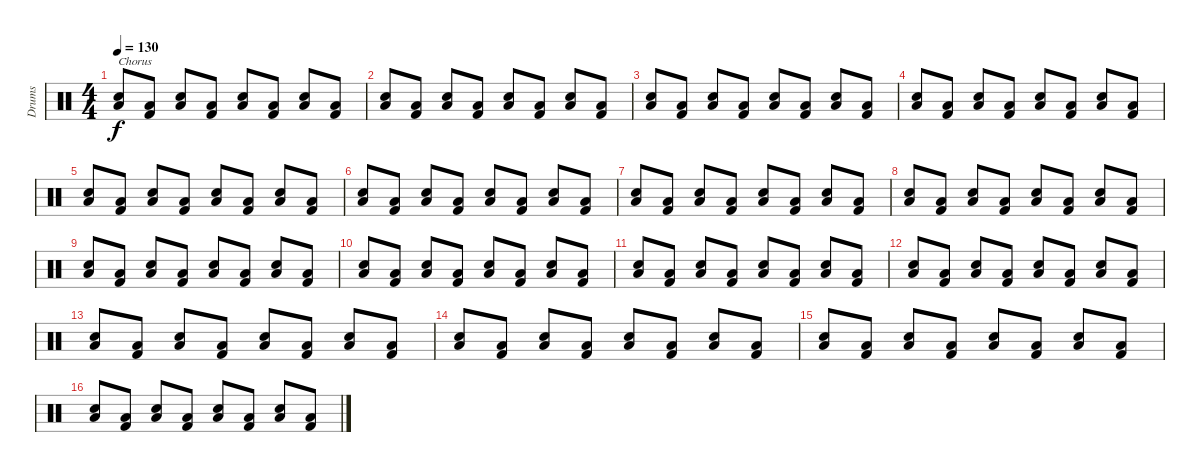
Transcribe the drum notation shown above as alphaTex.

\track ("Drums" "Drums") {instrument percussion}
\staff {score}
\articulation defaults
\ts (4 4)
\tempo 130
\clef neutral
\ks c
("Snare (hit) 2" "Low Floor Tom (hit)").8{txt "Chorus" dy f} ("Low Floor Tom (hit)" "Kick (hit) 2").8 ("Snare (hit) 2" "Low Floor Tom (hit)").8 ("Kick (hit) 2" "Low Floor Tom (hit)").8 ("Snare (hit) 2" "Low Floor Tom (hit)").8 ("Kick (hit) 2" "Low Floor Tom (hit)").8 ("Snare (hit) 2" "Low Floor Tom (hit)").8 ("Kick (hit) 2" "Low Floor Tom (hit)").8 |
("Snare (hit) 2" "Low Floor Tom (hit)").8 ("Low Floor Tom (hit)" "Kick (hit) 2").8 ("Snare (hit) 2" "Low Floor Tom (hit)").8 ("Kick (hit) 2" "Low Floor Tom (hit)").8 ("Snare (hit) 2" "Low Floor Tom (hit)").8 ("Kick (hit) 2" "Low Floor Tom (hit)").8 ("Snare (hit) 2" "Low Floor Tom (hit)").8 ("Kick (hit) 2" "Low Floor Tom (hit)").8 |
("Snare (hit) 2" "Low Floor Tom (hit)").8 ("Low Floor Tom (hit)" "Kick (hit) 2").8 ("Snare (hit) 2" "Low Floor Tom (hit)").8 ("Kick (hit) 2" "Low Floor Tom (hit)").8 ("Snare (hit) 2" "Low Floor Tom (hit)").8 ("Kick (hit) 2" "Low Floor Tom (hit)").8 ("Snare (hit) 2" "Low Floor Tom (hit)").8 ("Kick (hit) 2" "Low Floor Tom (hit)").8 |
("Snare (hit) 2" "Low Floor Tom (hit)").8 ("Low Floor Tom (hit)" "Kick (hit) 2").8 ("Snare (hit) 2" "Low Floor Tom (hit)").8 ("Kick (hit) 2" "Low Floor Tom (hit)").8 ("Snare (hit) 2" "Low Floor Tom (hit)").8 ("Kick (hit) 2" "Low Floor Tom (hit)").8 ("Snare (hit) 2" "Low Floor Tom (hit)").8 ("Kick (hit) 2" "Low Floor Tom (hit)").8 |
("Snare (hit) 2" "Low Floor Tom (hit)").8 ("Low Floor Tom (hit)" "Kick (hit) 2").8 ("Snare (hit) 2" "Low Floor Tom (hit)").8 ("Kick (hit) 2" "Low Floor Tom (hit)").8 ("Snare (hit) 2" "Low Floor Tom (hit)").8 ("Kick (hit) 2" "Low Floor Tom (hit)").8 ("Snare (hit) 2" "Low Floor Tom (hit)").8 ("Kick (hit) 2" "Low Floor Tom (hit)").8 |
("Snare (hit) 2" "Low Floor Tom (hit)").8 ("Low Floor Tom (hit)" "Kick (hit) 2").8 ("Snare (hit) 2" "Low Floor Tom (hit)").8 ("Kick (hit) 2" "Low Floor Tom (hit)").8 ("Snare (hit) 2" "Low Floor Tom (hit)").8 ("Kick (hit) 2" "Low Floor Tom (hit)").8 ("Snare (hit) 2" "Low Floor Tom (hit)").8 ("Kick (hit) 2" "Low Floor Tom (hit)").8 |
("Snare (hit) 2" "Low Floor Tom (hit)").8 ("Low Floor Tom (hit)" "Kick (hit) 2").8 ("Snare (hit) 2" "Low Floor Tom (hit)").8 ("Kick (hit) 2" "Low Floor Tom (hit)").8 ("Snare (hit) 2" "Low Floor Tom (hit)").8 ("Kick (hit) 2" "Low Floor Tom (hit)").8 ("Snare (hit) 2" "Low Floor Tom (hit)").8 ("Kick (hit) 2" "Low Floor Tom (hit)").8 |
("Snare (hit) 2" "Low Floor Tom (hit)").8 ("Low Floor Tom (hit)" "Kick (hit) 2").8 ("Snare (hit) 2" "Low Floor Tom (hit)").8 ("Kick (hit) 2" "Low Floor Tom (hit)").8 ("Snare (hit) 2" "Low Floor Tom (hit)").8 ("Kick (hit) 2" "Low Floor Tom (hit)").8 ("Snare (hit) 2" "Low Floor Tom (hit)").8 ("Kick (hit) 2" "Low Floor Tom (hit)").8 |
("Snare (hit) 2" "Low Floor Tom (hit)").8 ("Low Floor Tom (hit)" "Kick (hit) 2").8 ("Snare (hit) 2" "Low Floor Tom (hit)").8 ("Kick (hit) 2" "Low Floor Tom (hit)").8 ("Snare (hit) 2" "Low Floor Tom (hit)").8 ("Kick (hit) 2" "Low Floor Tom (hit)").8 ("Snare (hit) 2" "Low Floor Tom (hit)").8 ("Kick (hit) 2" "Low Floor Tom (hit)").8 |
("Snare (hit) 2" "Low Floor Tom (hit)").8 ("Low Floor Tom (hit)" "Kick (hit) 2").8 ("Snare (hit) 2" "Low Floor Tom (hit)").8 ("Kick (hit) 2" "Low Floor Tom (hit)").8 ("Snare (hit) 2" "Low Floor Tom (hit)").8 ("Kick (hit) 2" "Low Floor Tom (hit)").8 ("Snare (hit) 2" "Low Floor Tom (hit)").8 ("Kick (hit) 2" "Low Floor Tom (hit)").8 |
("Snare (hit) 2" "Low Floor Tom (hit)").8 ("Low Floor Tom (hit)" "Kick (hit) 2").8 ("Snare (hit) 2" "Low Floor Tom (hit)").8 ("Kick (hit) 2" "Low Floor Tom (hit)").8 ("Snare (hit) 2" "Low Floor Tom (hit)").8 ("Kick (hit) 2" "Low Floor Tom (hit)").8 ("Snare (hit) 2" "Low Floor Tom (hit)").8 ("Kick (hit) 2" "Low Floor Tom (hit)").8 |
("Snare (hit) 2" "Low Floor Tom (hit)").8 ("Low Floor Tom (hit)" "Kick (hit) 2").8 ("Snare (hit) 2" "Low Floor Tom (hit)").8 ("Kick (hit) 2" "Low Floor Tom (hit)").8 ("Snare (hit) 2" "Low Floor Tom (hit)").8 ("Kick (hit) 2" "Low Floor Tom (hit)").8 ("Snare (hit) 2" "Low Floor Tom (hit)").8 ("Kick (hit) 2" "Low Floor Tom (hit)").8 |
("Snare (hit) 2" "Low Floor Tom (hit)").8 ("Low Floor Tom (hit)" "Kick (hit) 2").8 ("Snare (hit) 2" "Low Floor Tom (hit)").8 ("Kick (hit) 2" "Low Floor Tom (hit)").8 ("Snare (hit) 2" "Low Floor Tom (hit)").8 ("Kick (hit) 2" "Low Floor Tom (hit)").8 ("Snare (hit) 2" "Low Floor Tom (hit)").8 ("Kick (hit) 2" "Low Floor Tom (hit)").8 |
("Snare (hit) 2" "Low Floor Tom (hit)").8 ("Low Floor Tom (hit)" "Kick (hit) 2").8 ("Snare (hit) 2" "Low Floor Tom (hit)").8 ("Kick (hit) 2" "Low Floor Tom (hit)").8 ("Snare (hit) 2" "Low Floor Tom (hit)").8 ("Kick (hit) 2" "Low Floor Tom (hit)").8 ("Snare (hit) 2" "Low Floor Tom (hit)").8 ("Kick (hit) 2" "Low Floor Tom (hit)").8 |
("Snare (hit) 2" "Low Floor Tom (hit)").8 ("Low Floor Tom (hit)" "Kick (hit) 2").8 ("Snare (hit) 2" "Low Floor Tom (hit)").8 ("Kick (hit) 2" "Low Floor Tom (hit)").8 ("Snare (hit) 2" "Low Floor Tom (hit)").8 ("Kick (hit) 2" "Low Floor Tom (hit)").8 ("Snare (hit) 2" "Low Floor Tom (hit)").8 ("Kick (hit) 2" "Low Floor Tom (hit)").8 |
("Snare (hit) 2" "Low Floor Tom (hit)").8 ("Low Floor Tom (hit)" "Kick (hit) 2").8 ("Snare (hit) 2" "Low Floor Tom (hit)").8 ("Kick (hit) 2" "Low Floor Tom (hit)").8 ("Snare (hit) 2" "Low Floor Tom (hit)").8 ("Kick (hit) 2" "Low Floor Tom (hit)").8 ("Snare (hit) 2" "Low Floor Tom (hit)").8 ("Kick (hit) 2" "Low Floor Tom (hit)").8
